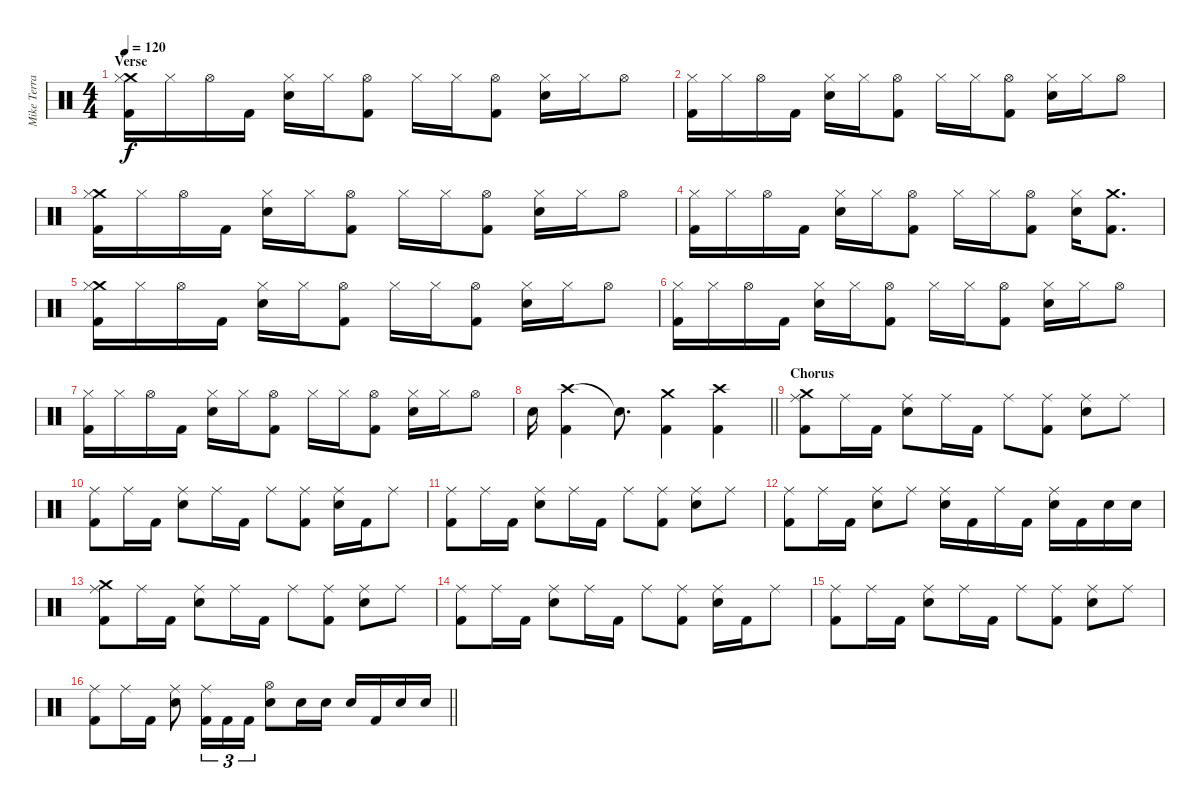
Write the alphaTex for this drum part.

\track ("Mike Terrana" "Mike Terra") {instrument percussion}
\staff {score}
\articulation defaults
\ts (4 4)
\section ("" "Verse")
\tempo 120
\clef neutral
\ks c
("Crash medium (hit)" "Hi-Hat (closed)" "Kick (hit) 2").16{dy f} "Hi-Hat (closed)".16 "Hi-Hat (open)".16 "Kick (hit) 2".16 ("Hi-Hat (closed)" "Snare (hit) 2").16 "Hi-Hat (closed)".16 ("Hi-Hat (open)" "Kick (hit) 2").8 "Hi-Hat (closed)".16 "Hi-Hat (closed)".16 ("Hi-Hat (open)" "Kick (hit) 2").8 ("Hi-Hat (closed)" "Snare (hit) 2").16 "Hi-Hat (closed)".16 "Hi-Hat (open)".8 |
("Hi-Hat (closed)" "Kick (hit) 2").16 "Hi-Hat (closed)".16 "Hi-Hat (open)".16 "Kick (hit) 2".16 ("Hi-Hat (closed)" "Snare (hit) 2").16 "Hi-Hat (closed)".16 ("Hi-Hat (open)" "Kick (hit) 2").8 "Hi-Hat (closed)".16 "Hi-Hat (closed)".16 ("Hi-Hat (open)" "Kick (hit) 2").8 ("Hi-Hat (closed)" "Snare (hit) 2").16 "Hi-Hat (closed)".16 "Hi-Hat (open)".8 |
("Crash medium (hit)" "Hi-Hat (closed)" "Kick (hit) 2").16 "Hi-Hat (closed)".16 "Hi-Hat (open)".16 "Kick (hit) 2".16 ("Hi-Hat (closed)" "Snare (hit) 2").16 "Hi-Hat (closed)".16 ("Hi-Hat (open)" "Kick (hit) 2").8 "Hi-Hat (closed)".16 "Hi-Hat (closed)".16 ("Hi-Hat (open)" "Kick (hit) 2").8 ("Hi-Hat (closed)" "Snare (hit) 2").16 "Hi-Hat (closed)".16 "Hi-Hat (open)".8 |
("Hi-Hat (closed)" "Kick (hit) 2").16 "Hi-Hat (closed)".16 "Hi-Hat (open)".16 "Kick (hit) 2".16 ("Hi-Hat (closed)" "Snare (hit) 2").16 "Hi-Hat (closed)".16 ("Hi-Hat (open)" "Kick (hit) 2").8 "Hi-Hat (closed)".16 "Hi-Hat (closed)".16 ("Hi-Hat (open)" "Kick (hit) 2").8 ("Hi-Hat (closed)" "Snare (hit) 2").16 ("Crash medium (hit)" "Kick (hit) 2").8{d} |
("Crash medium (hit)" "Hi-Hat (closed)" "Kick (hit) 2").16 "Hi-Hat (closed)".16 "Hi-Hat (open)".16 "Kick (hit) 2".16 ("Hi-Hat (closed)" "Snare (hit) 2").16 "Hi-Hat (closed)".16 ("Hi-Hat (open)" "Kick (hit) 2").8 "Hi-Hat (closed)".16 "Hi-Hat (closed)".16 ("Hi-Hat (open)" "Kick (hit) 2").8 ("Hi-Hat (closed)" "Snare (hit) 2").16 "Hi-Hat (closed)".16 "Hi-Hat (open)".8 |
("Hi-Hat (closed)" "Kick (hit) 2").16 "Hi-Hat (closed)".16 "Hi-Hat (open)".16 "Kick (hit) 2".16 ("Hi-Hat (closed)" "Snare (hit) 2").16 "Hi-Hat (closed)".16 ("Hi-Hat (open)" "Kick (hit) 2").8 "Hi-Hat (closed)".16 "Hi-Hat (closed)".16 ("Hi-Hat (open)" "Kick (hit) 2").8 ("Hi-Hat (closed)" "Snare (hit) 2").16 "Hi-Hat (closed)".16 "Hi-Hat (open)".8 |
("Hi-Hat (closed)" "Kick (hit) 2").16 "Hi-Hat (closed)".16 "Hi-Hat (open)".16 "Kick (hit) 2".16 ("Hi-Hat (closed)" "Snare (hit) 2").16 "Hi-Hat (closed)".16 ("Hi-Hat (open)" "Kick (hit) 2").8 "Hi-Hat (closed)".16 "Hi-Hat (closed)".16 ("Hi-Hat (open)" "Kick (hit) 2").8 ("Hi-Hat (closed)" "Snare (hit) 2").16 "Hi-Hat (closed)".16 "Hi-Hat (open)".8 |
\barLineRight lightlight "Snare (hit) 2".16
("Crash high (hit)" "Kick (hit) 2").4 "Snare (hit)"{t}.8{d} ("Crash medium (hit)" "Kick (hit) 2").4 ("Crash high (hit)" "Kick (hit) 2").4 |
\section ("" "Chorus")
("Crash medium (hit)" "Ride (middle)" "Kick (hit) 2").8 "Ride (middle)".16 "Kick (hit) 2".16 ("Ride (middle)" "Snare (hit) 2").8 "Ride (middle)".16 "Kick (hit) 2".16 "Ride (middle)".8 ("Ride (middle)" "Kick (hit) 2").8 ("Ride (middle)" "Snare (hit) 2").8 "Ride (middle)".8 |
("Ride (middle)" "Kick (hit) 2").8 "Ride (middle)".16 "Kick (hit) 2".16 ("Ride (middle)" "Snare (hit) 2").8 "Ride (middle)".16 "Kick (hit) 2".16 "Ride (middle)".8 ("Ride (middle)" "Kick (hit) 2").8 ("Ride (middle)" "Snare (hit) 2").16 "Kick (hit) 2".16 "Ride (middle)".8 |
("Ride (middle)" "Kick (hit) 2").8 "Ride (middle)".16 "Kick (hit) 2".16 ("Ride (middle)" "Snare (hit) 2").8 "Ride (middle)".16 "Kick (hit) 2".16 "Ride (middle)".8 ("Ride (middle)" "Kick (hit) 2").8 ("Ride (middle)" "Snare (hit) 2").8 "Ride (middle)".8 |
("Ride (middle)" "Kick (hit) 2").8 "Ride (middle)".16 "Kick (hit) 2".16 ("Ride (middle)" "Snare (hit) 2").8 "Ride (middle)".8 ("Ride (middle)" "Snare (hit) 2").16 "Kick (hit) 2".16 "Ride (middle)".16 "Kick (hit) 2".16 ("Ride (middle)" "Snare (hit) 2").16 "Kick (hit) 2".16 "Snare (hit) 2".16 "Snare (hit) 2".16 |
("Crash medium (hit)" "Ride (middle)" "Kick (hit) 2").8 "Ride (middle)".16 "Kick (hit) 2".16 ("Ride (middle)" "Snare (hit) 2").8 "Ride (middle)".16 "Kick (hit) 2".16 "Ride (middle)".8 ("Ride (middle)" "Kick (hit) 2").8 ("Ride (middle)" "Snare (hit) 2").8 "Ride (middle)".8 |
("Ride (middle)" "Kick (hit) 2").8 "Ride (middle)".16 "Kick (hit) 2".16 ("Ride (middle)" "Snare (hit) 2").8 "Ride (middle)".16 "Kick (hit) 2".16 "Ride (middle)".8 ("Ride (middle)" "Kick (hit) 2").8 ("Ride (middle)" "Snare (hit) 2").16 "Kick (hit) 2".16 "Ride (middle)".8 |
("Ride (middle)" "Kick (hit) 2").8 "Ride (middle)".16 "Kick (hit) 2".16 ("Ride (middle)" "Snare (hit) 2").8 "Ride (middle)".16 "Kick (hit) 2".16 "Ride (middle)".8 ("Ride (middle)" "Kick (hit) 2").8 ("Ride (middle)" "Snare (hit) 2").8 "Ride (middle)".8 |
\barLineRight lightlight
("Ride (middle)" "Kick (hit) 2").8 "Ride (middle)".16 "Kick (hit) 2".16 ("Ride (middle)" "Snare (hit) 2").8 ("Ride (middle)" "Kick (hit) 2").16{tu (3 2)} "Kick (hit) 2".16{tu (3 2)} "Kick (hit) 2".16{tu (3 2)} ("Hi-Hat (open)" "Snare (hit) 2").8 "Snare (hit) 2".16 "Snare (hit) 2".16 "Snare (hit) 2".16 "Kick (hit) 2".16 "Snare (hit) 2".16 "Snare (hit) 2".16
